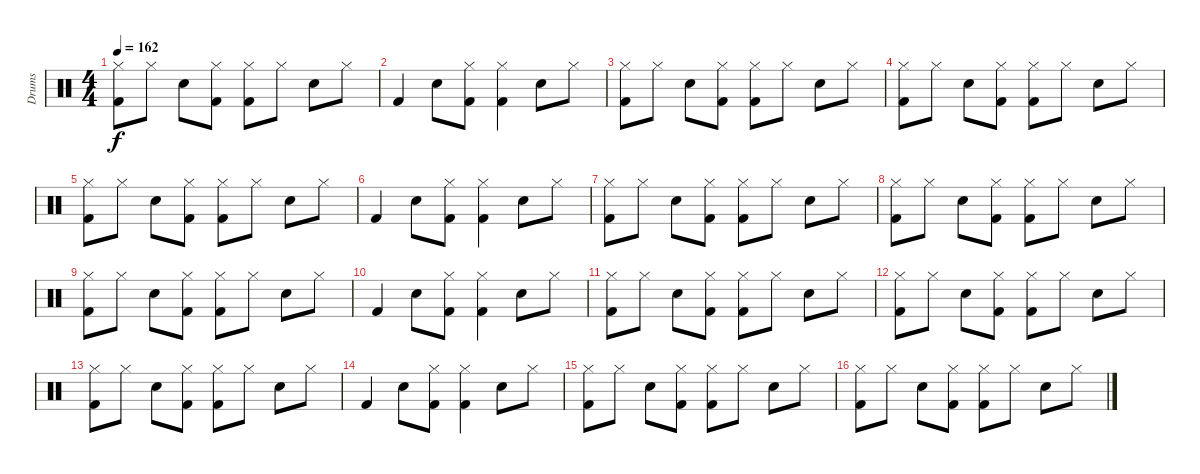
\track ("Drums" "Drums") {instrument percussion}
\staff {score}
\articulation defaults
\ts (4 4)
\tempo 162
\clef neutral
\ks c
("Hi-Hat (closed)" "Kick (hit) 2").8{dy f} "Hi-Hat (closed)".8 "Snare (hit) 2".8 ("Hi-Hat (closed)" "Kick (hit) 2").8 ("Hi-Hat (closed)" "Kick (hit) 2").8 "Hi-Hat (closed)".8 "Snare (hit) 2".8 "Hi-Hat (closed)".8 |
"Kick (hit) 2".4 "Snare (hit) 2".8 ("Hi-Hat (closed)" "Kick (hit) 2").8 ("Hi-Hat (closed)" "Kick (hit) 2").4 "Snare (hit) 2".8 "Hi-Hat (closed)".8 |
("Hi-Hat (closed)" "Kick (hit) 2").8 "Hi-Hat (closed)".8 "Snare (hit) 2".8 ("Hi-Hat (closed)" "Kick (hit) 2").8 ("Hi-Hat (closed)" "Kick (hit) 2").8 "Hi-Hat (closed)".8 "Snare (hit) 2".8 "Hi-Hat (closed)".8 |
("Hi-Hat (closed)" "Kick (hit) 2").8 "Hi-Hat (closed)".8 "Snare (hit) 2".8 ("Hi-Hat (closed)" "Kick (hit) 2").8 ("Hi-Hat (closed)" "Kick (hit) 2").8 "Hi-Hat (closed)".8 "Snare (hit) 2".8 "Hi-Hat (closed)".8 |
("Hi-Hat (closed)" "Kick (hit) 2").8 "Hi-Hat (closed)".8 "Snare (hit) 2".8 ("Hi-Hat (closed)" "Kick (hit) 2").8 ("Hi-Hat (closed)" "Kick (hit) 2").8 "Hi-Hat (closed)".8 "Snare (hit) 2".8 "Hi-Hat (closed)".8 |
"Kick (hit) 2".4 "Snare (hit) 2".8 ("Hi-Hat (closed)" "Kick (hit) 2").8 ("Hi-Hat (closed)" "Kick (hit) 2").4 "Snare (hit) 2".8 "Hi-Hat (closed)".8 |
("Hi-Hat (closed)" "Kick (hit) 2").8 "Hi-Hat (closed)".8 "Snare (hit) 2".8 ("Hi-Hat (closed)" "Kick (hit) 2").8 ("Hi-Hat (closed)" "Kick (hit) 2").8 "Hi-Hat (closed)".8 "Snare (hit) 2".8 "Hi-Hat (closed)".8 |
("Hi-Hat (closed)" "Kick (hit) 2").8 "Hi-Hat (closed)".8 "Snare (hit) 2".8 ("Hi-Hat (closed)" "Kick (hit) 2").8 ("Hi-Hat (closed)" "Kick (hit) 2").8 "Hi-Hat (closed)".8 "Snare (hit) 2".8 "Hi-Hat (closed)".8 |
("Hi-Hat (closed)" "Kick (hit) 2").8 "Hi-Hat (closed)".8 "Snare (hit) 2".8 ("Hi-Hat (closed)" "Kick (hit) 2").8 ("Hi-Hat (closed)" "Kick (hit) 2").8 "Hi-Hat (closed)".8 "Snare (hit) 2".8 "Hi-Hat (closed)".8 |
"Kick (hit) 2".4 "Snare (hit) 2".8 ("Hi-Hat (closed)" "Kick (hit) 2").8 ("Hi-Hat (closed)" "Kick (hit) 2").4 "Snare (hit) 2".8 "Hi-Hat (closed)".8 |
("Hi-Hat (closed)" "Kick (hit) 2").8 "Hi-Hat (closed)".8 "Snare (hit) 2".8 ("Hi-Hat (closed)" "Kick (hit) 2").8 ("Hi-Hat (closed)" "Kick (hit) 2").8 "Hi-Hat (closed)".8 "Snare (hit) 2".8 "Hi-Hat (closed)".8 |
("Hi-Hat (closed)" "Kick (hit) 2").8 "Hi-Hat (closed)".8 "Snare (hit) 2".8 ("Hi-Hat (closed)" "Kick (hit) 2").8 ("Hi-Hat (closed)" "Kick (hit) 2").8 "Hi-Hat (closed)".8 "Snare (hit) 2".8 "Hi-Hat (closed)".8 |
("Hi-Hat (closed)" "Kick (hit) 2").8 "Hi-Hat (closed)".8 "Snare (hit) 2".8 ("Hi-Hat (closed)" "Kick (hit) 2").8 ("Hi-Hat (closed)" "Kick (hit) 2").8 "Hi-Hat (closed)".8 "Snare (hit) 2".8 "Hi-Hat (closed)".8 |
"Kick (hit) 2".4 "Snare (hit) 2".8 ("Hi-Hat (closed)" "Kick (hit) 2").8 ("Hi-Hat (closed)" "Kick (hit) 2").4 "Snare (hit) 2".8 "Hi-Hat (closed)".8 |
("Hi-Hat (closed)" "Kick (hit) 2").8 "Hi-Hat (closed)".8 "Snare (hit) 2".8 ("Hi-Hat (closed)" "Kick (hit) 2").8 ("Hi-Hat (closed)" "Kick (hit) 2").8 "Hi-Hat (closed)".8 "Snare (hit) 2".8 "Hi-Hat (closed)".8 |
("Hi-Hat (closed)" "Kick (hit) 2").8 "Hi-Hat (closed)".8 "Snare (hit) 2".8 ("Hi-Hat (closed)" "Kick (hit) 2").8 ("Hi-Hat (closed)" "Kick (hit) 2").8 "Hi-Hat (closed)".8 "Snare (hit) 2".8 "Hi-Hat (closed)".8
